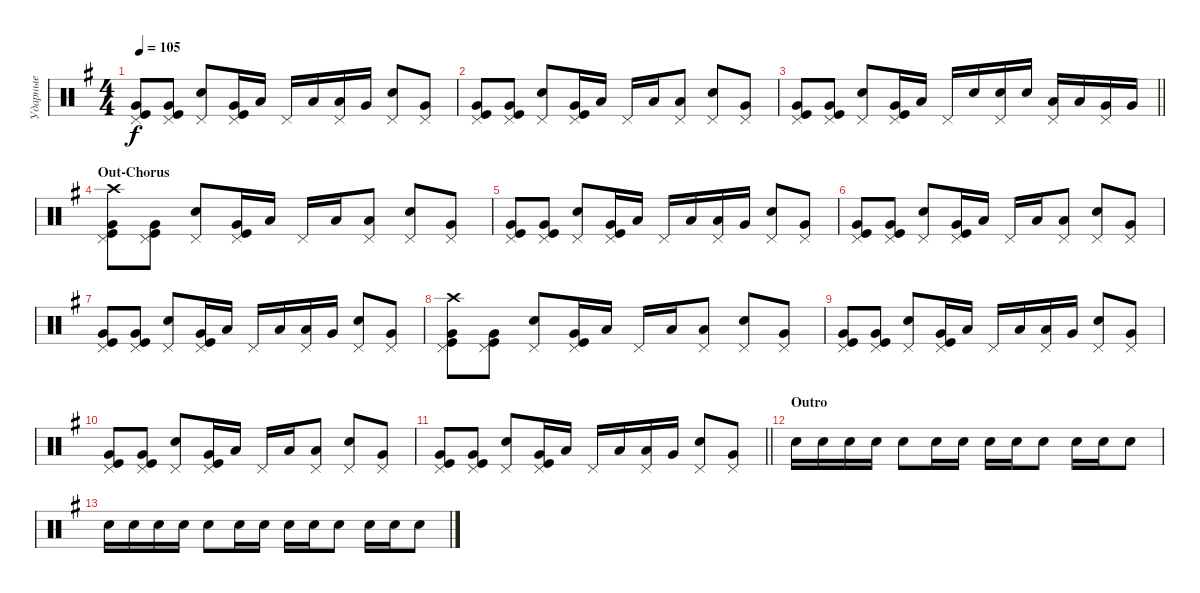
\track ("Ударные" "Ударные") {instrument percussion}
\staff {score}
\articulation defaults
\ts (4 4)
\tempo 105
\clef neutral
\ks eminor
("Kick (hit)" "Very Low Tom (hit)" "Pedal Hi-Hat (hit)").8{dy f} ("Kick (hit)" "Very Low Tom (hit)" "Pedal Hi-Hat (hit)").8 ("Snare (hit) 2" "Pedal Hi-Hat (hit)").8 ("Kick (hit)" "Very Low Tom (hit)" "Pedal Hi-Hat (hit)").16 "Low Tom (hit)".16 "Pedal Hi-Hat (hit)".16 "Low Tom (hit)".16 ("Low Tom (hit)" "Pedal Hi-Hat (hit)").16 "Very Low Tom (hit)".16 ("Snare (hit) 2" "Pedal Hi-Hat (hit)").8 ("Very Low Tom (hit)" "Pedal Hi-Hat (hit)").8 |
("Kick (hit)" "Very Low Tom (hit)" "Pedal Hi-Hat (hit)").8 ("Kick (hit)" "Very Low Tom (hit)" "Pedal Hi-Hat (hit)").8 ("Snare (hit) 2" "Pedal Hi-Hat (hit)").8 ("Kick (hit)" "Very Low Tom (hit)" "Pedal Hi-Hat (hit)").16 "Low Tom (hit)".16 "Pedal Hi-Hat (hit)".16 "Low Tom (hit)".16 ("Low Tom (hit)" "Pedal Hi-Hat (hit)").8 ("Snare (hit) 2" "Pedal Hi-Hat (hit)").8 ("Very Low Tom (hit)" "Pedal Hi-Hat (hit)").8 |
\barLineRight lightlight
("Kick (hit)" "Very Low Tom (hit)" "Pedal Hi-Hat (hit)").8 ("Kick (hit)" "Very Low Tom (hit)" "Pedal Hi-Hat (hit)").8 ("Snare (hit) 2" "Pedal Hi-Hat (hit)").8 ("Kick (hit)" "Very Low Tom (hit)" "Pedal Hi-Hat (hit)").16 "Low Tom (hit)".16 "Pedal Hi-Hat (hit)".16 "Snare (hit) 2".16 ("Pedal Hi-Hat (hit)" "Snare (hit) 2").16 "Snare (hit) 2".16 ("Low Tom (hit)" "Pedal Hi-Hat (hit)").16 "Low Tom (hit)".16 ("Very Low Tom (hit)" "Pedal Hi-Hat (hit)").16 "Very Low Tom (hit)".16 |
\section ("" "Out-Chorus")
("Kick (hit)" "Very Low Tom (hit)" "Pedal Hi-Hat (hit)" "Crash high (hit)").8 ("Kick (hit)" "Very Low Tom (hit)" "Pedal Hi-Hat (hit)").8 ("Snare (hit) 2" "Pedal Hi-Hat (hit)").8 ("Kick (hit)" "Very Low Tom (hit)" "Pedal Hi-Hat (hit)").16 "Low Tom (hit)".16 "Pedal Hi-Hat (hit)".16 "Low Tom (hit)".16 ("Low Tom (hit)" "Pedal Hi-Hat (hit)").8 ("Snare (hit) 2" "Pedal Hi-Hat (hit)").8 ("Very Low Tom (hit)" "Pedal Hi-Hat (hit)").8 |
("Kick (hit)" "Very Low Tom (hit)" "Pedal Hi-Hat (hit)").8 ("Kick (hit)" "Very Low Tom (hit)" "Pedal Hi-Hat (hit)").8 ("Snare (hit) 2" "Pedal Hi-Hat (hit)").8 ("Kick (hit)" "Very Low Tom (hit)" "Pedal Hi-Hat (hit)").16 "Low Tom (hit)".16 "Pedal Hi-Hat (hit)".16 "Low Tom (hit)".16 ("Low Tom (hit)" "Pedal Hi-Hat (hit)").16 "Very Low Tom (hit)".16 ("Snare (hit) 2" "Pedal Hi-Hat (hit)").8 ("Very Low Tom (hit)" "Pedal Hi-Hat (hit)").8 |
("Kick (hit)" "Very Low Tom (hit)" "Pedal Hi-Hat (hit)").8 ("Kick (hit)" "Very Low Tom (hit)" "Pedal Hi-Hat (hit)").8 ("Snare (hit) 2" "Pedal Hi-Hat (hit)").8 ("Kick (hit)" "Very Low Tom (hit)" "Pedal Hi-Hat (hit)").16 "Low Tom (hit)".16 "Pedal Hi-Hat (hit)".16 "Low Tom (hit)".16 ("Low Tom (hit)" "Pedal Hi-Hat (hit)").8 ("Snare (hit) 2" "Pedal Hi-Hat (hit)").8 ("Very Low Tom (hit)" "Pedal Hi-Hat (hit)").8 |
("Kick (hit)" "Very Low Tom (hit)" "Pedal Hi-Hat (hit)").8 ("Kick (hit)" "Very Low Tom (hit)" "Pedal Hi-Hat (hit)").8 ("Snare (hit) 2" "Pedal Hi-Hat (hit)").8 ("Kick (hit)" "Very Low Tom (hit)" "Pedal Hi-Hat (hit)").16 "Low Tom (hit)".16 "Pedal Hi-Hat (hit)".16 "Low Tom (hit)".16 ("Low Tom (hit)" "Pedal Hi-Hat (hit)").16 "Very Low Tom (hit)".16 ("Snare (hit) 2" "Pedal Hi-Hat (hit)").8 ("Very Low Tom (hit)" "Pedal Hi-Hat (hit)").8 |
("Kick (hit)" "Very Low Tom (hit)" "Pedal Hi-Hat (hit)" "Crash high (hit)").8 ("Kick (hit)" "Very Low Tom (hit)" "Pedal Hi-Hat (hit)").8 ("Snare (hit) 2" "Pedal Hi-Hat (hit)").8 ("Kick (hit)" "Very Low Tom (hit)" "Pedal Hi-Hat (hit)").16 "Low Tom (hit)".16 "Pedal Hi-Hat (hit)".16 "Low Tom (hit)".16 ("Low Tom (hit)" "Pedal Hi-Hat (hit)").8 ("Snare (hit) 2" "Pedal Hi-Hat (hit)").8 ("Very Low Tom (hit)" "Pedal Hi-Hat (hit)").8 |
("Kick (hit)" "Very Low Tom (hit)" "Pedal Hi-Hat (hit)").8 ("Kick (hit)" "Very Low Tom (hit)" "Pedal Hi-Hat (hit)").8 ("Snare (hit) 2" "Pedal Hi-Hat (hit)").8 ("Kick (hit)" "Very Low Tom (hit)" "Pedal Hi-Hat (hit)").16 "Low Tom (hit)".16 "Pedal Hi-Hat (hit)".16 "Low Tom (hit)".16 ("Low Tom (hit)" "Pedal Hi-Hat (hit)").16 "Very Low Tom (hit)".16 ("Snare (hit) 2" "Pedal Hi-Hat (hit)").8 ("Very Low Tom (hit)" "Pedal Hi-Hat (hit)").8 |
("Kick (hit)" "Very Low Tom (hit)" "Pedal Hi-Hat (hit)").8 ("Kick (hit)" "Very Low Tom (hit)" "Pedal Hi-Hat (hit)").8 ("Snare (hit) 2" "Pedal Hi-Hat (hit)").8 ("Kick (hit)" "Very Low Tom (hit)" "Pedal Hi-Hat (hit)").16 "Low Tom (hit)".16 "Pedal Hi-Hat (hit)".16 "Low Tom (hit)".16 ("Low Tom (hit)" "Pedal Hi-Hat (hit)").8 ("Snare (hit) 2" "Pedal Hi-Hat (hit)").8 ("Very Low Tom (hit)" "Pedal Hi-Hat (hit)").8 |
\barLineRight lightlight
("Kick (hit)" "Very Low Tom (hit)" "Pedal Hi-Hat (hit)").8 ("Kick (hit)" "Very Low Tom (hit)" "Pedal Hi-Hat (hit)").8 ("Snare (hit) 2" "Pedal Hi-Hat (hit)").8 ("Kick (hit)" "Very Low Tom (hit)" "Pedal Hi-Hat (hit)").16 "Low Tom (hit)".16 "Pedal Hi-Hat (hit)".16 "Low Tom (hit)".16 ("Low Tom (hit)" "Pedal Hi-Hat (hit)").16 "Very Low Tom (hit)".16 ("Snare (hit) 2" "Pedal Hi-Hat (hit)").8 ("Very Low Tom (hit)" "Pedal Hi-Hat (hit)").8 |
\section ("" "Outro")
"Snare (hit) 2".16 "Snare (hit) 2".16 "Snare (hit) 2".16 "Snare (hit) 2".16 "Snare (hit) 2".8 "Snare (hit) 2".16 "Snare (hit) 2".16 "Snare (hit) 2".16 "Snare (hit) 2".16 "Snare (hit) 2".8 "Snare (hit) 2".16 "Snare (hit) 2".16 "Snare (hit) 2".8 |
"Snare (hit) 2".16 "Snare (hit) 2".16 "Snare (hit) 2".16 "Snare (hit) 2".16 "Snare (hit) 2".8 "Snare (hit) 2".16 "Snare (hit) 2".16 "Snare (hit) 2".16 "Snare (hit) 2".16 "Snare (hit) 2".8 "Snare (hit) 2".16 "Snare (hit) 2".16 "Snare (hit) 2".8
